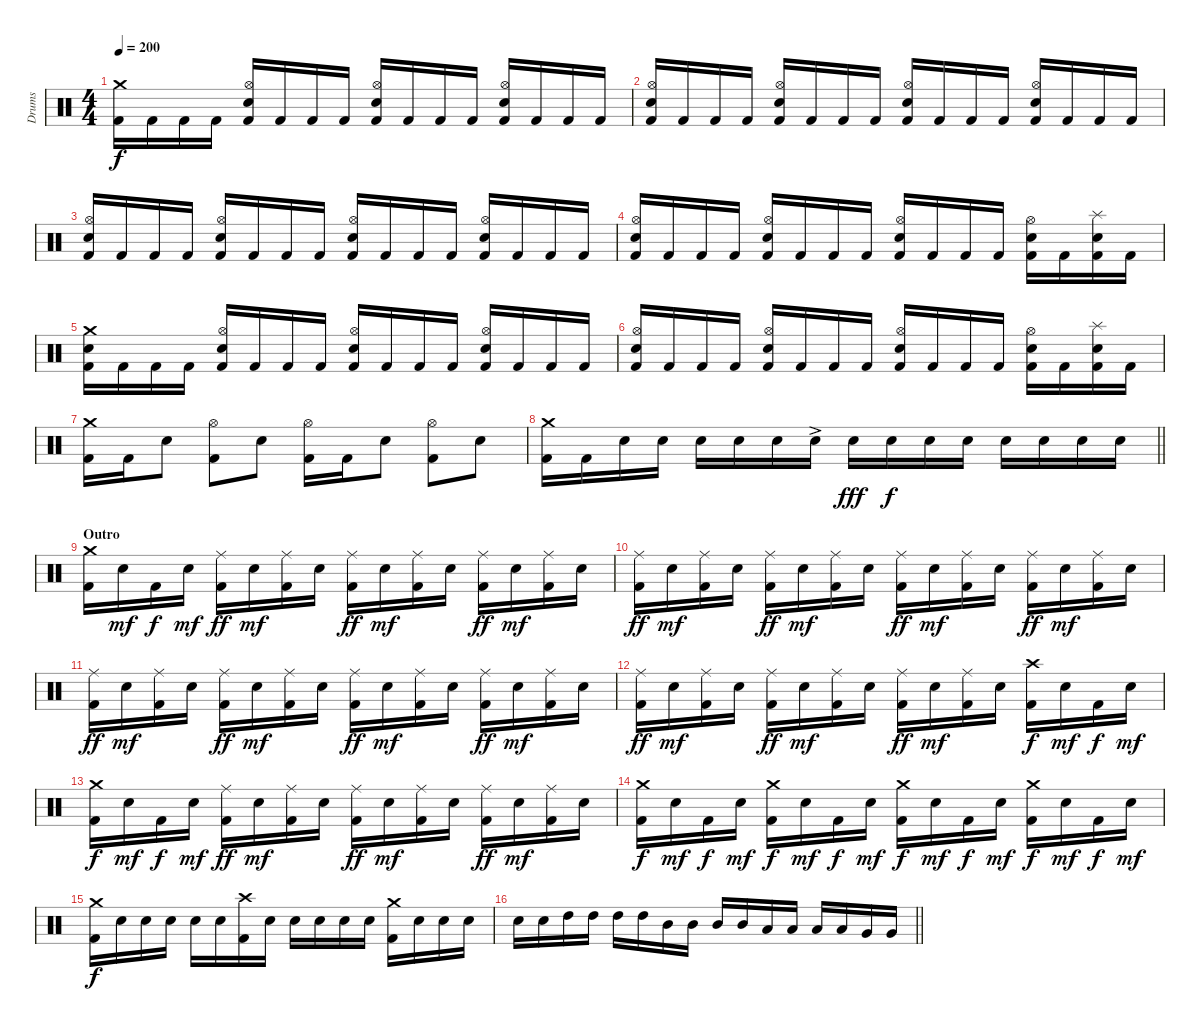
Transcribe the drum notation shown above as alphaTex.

\track ("Drums" "Drums") {instrument percussion}
\staff {score}
\articulation defaults
\ts (4 4)
\tempo 200
\clef neutral
\ks c
("Crash medium (hit)" "Kick (hit) 2").16{dy f} "Kick (hit) 2".16 "Kick (hit) 2".16 "Kick (hit) 2".16 ("Hi-Hat (open)" "Electric Snare (hit)" "Kick (hit) 2").16 "Kick (hit) 2".16 "Kick (hit) 2".16 "Kick (hit) 2".16 ("Hi-Hat (open)" "Electric Snare (hit)" "Kick (hit) 2").16 "Kick (hit) 2".16 "Kick (hit) 2".16 "Kick (hit) 2".16 ("Hi-Hat (open)" "Electric Snare (hit)" "Kick (hit) 2").16 "Kick (hit) 2".16 "Kick (hit) 2".16 "Kick (hit) 2".16 |
("Hi-Hat (open)" "Electric Snare (hit)" "Kick (hit) 2").16 "Kick (hit) 2".16 "Kick (hit) 2".16 "Kick (hit) 2".16 ("Hi-Hat (open)" "Electric Snare (hit)" "Kick (hit) 2").16 "Kick (hit) 2".16 "Kick (hit) 2".16 "Kick (hit) 2".16 ("Hi-Hat (open)" "Electric Snare (hit)" "Kick (hit) 2").16 "Kick (hit) 2".16 "Kick (hit) 2".16 "Kick (hit) 2".16 ("Hi-Hat (open)" "Electric Snare (hit)" "Kick (hit) 2").16 "Kick (hit) 2".16 "Kick (hit) 2".16 "Kick (hit) 2".16 |
("Hi-Hat (open)" "Electric Snare (hit)" "Kick (hit) 2").16 "Kick (hit) 2".16 "Kick (hit) 2".16 "Kick (hit) 2".16 ("Hi-Hat (open)" "Electric Snare (hit)" "Kick (hit) 2").16 "Kick (hit) 2".16 "Kick (hit) 2".16 "Kick (hit) 2".16 ("Hi-Hat (open)" "Electric Snare (hit)" "Kick (hit) 2").16 "Kick (hit) 2".16 "Kick (hit) 2".16 "Kick (hit) 2".16 ("Hi-Hat (open)" "Electric Snare (hit)" "Kick (hit) 2").16 "Kick (hit) 2".16 "Kick (hit) 2".16 "Kick (hit) 2".16 |
("Hi-Hat (open)" "Electric Snare (hit)" "Kick (hit) 2").16 "Kick (hit) 2".16 "Kick (hit) 2".16 "Kick (hit) 2".16 ("Hi-Hat (open)" "Electric Snare (hit)" "Kick (hit) 2").16 "Kick (hit) 2".16 "Kick (hit) 2".16 "Kick (hit) 2".16 ("Hi-Hat (open)" "Electric Snare (hit)" "Kick (hit) 2").16 "Kick (hit) 2".16 "Kick (hit) 2".16 "Kick (hit) 2".16 ("Hi-Hat (open)" "Electric Snare (hit)" "Kick (hit) 2").16 "Kick (hit) 2".16 ("Splash (hit)" "Electric Snare (hit)" "Kick (hit) 2").16 "Kick (hit) 2".16 |
("Crash medium (hit)" "Electric Snare (hit)" "Kick (hit) 2").16 "Kick (hit) 2".16 "Kick (hit) 2".16 "Kick (hit) 2".16 ("Hi-Hat (open)" "Electric Snare (hit)" "Kick (hit) 2").16 "Kick (hit) 2".16 "Kick (hit) 2".16 "Kick (hit) 2".16 ("Hi-Hat (open)" "Electric Snare (hit)" "Kick (hit) 2").16 "Kick (hit) 2".16 "Kick (hit) 2".16 "Kick (hit) 2".16 ("Hi-Hat (open)" "Electric Snare (hit)" "Kick (hit) 2").16 "Kick (hit) 2".16 "Kick (hit) 2".16 "Kick (hit) 2".16 |
("Hi-Hat (open)" "Electric Snare (hit)" "Kick (hit) 2").16 "Kick (hit) 2".16 "Kick (hit) 2".16 "Kick (hit) 2".16 ("Hi-Hat (open)" "Electric Snare (hit)" "Kick (hit) 2").16 "Kick (hit) 2".16 "Kick (hit) 2".16 "Kick (hit) 2".16 ("Hi-Hat (open)" "Electric Snare (hit)" "Kick (hit) 2").16 "Kick (hit) 2".16 "Kick (hit) 2".16 "Kick (hit) 2".16 ("Hi-Hat (open)" "Electric Snare (hit)" "Kick (hit) 2").16 "Kick (hit) 2".16 ("Splash (hit)" "Electric Snare (hit)" "Kick (hit) 2").16 "Kick (hit) 2".16 |
("Crash medium (hit)" "Kick (hit) 2").16 "Kick (hit) 2".16 "Electric Snare (hit)".8 ("Hi-Hat (open)" "Kick (hit) 2").8 "Electric Snare (hit)".8 ("Hi-Hat (open)" "Kick (hit) 2").16 "Kick (hit) 2".16 "Electric Snare (hit)".8 ("Hi-Hat (open)" "Kick (hit) 2").8 "Electric Snare (hit)".8 |
\barLineRight lightlight
("Crash medium (hit)" "Kick (hit) 2").16 "Kick (hit) 2".16 "Electric Snare (hit)".16 "Electric Snare (hit)".16 "Electric Snare (hit)".16 "Electric Snare (hit)".16 "Electric Snare (hit)".16 "Electric Snare (hit)"{ac}.16 "Electric Snare (hit)".16{dy fff} "Electric Snare (hit)".16{dy f} "Electric Snare (hit)".16 "Electric Snare (hit)".16 "Electric Snare (hit)".16 "Electric Snare (hit)".16 "Electric Snare (hit)".16 "Electric Snare (hit)".16 |
\section ("" "Outro")
("Crash medium (hit)" "Kick (hit) 2").16 "Electric Snare (hit)".16{dy mf} "Kick (hit) 2".16{dy f} "Electric Snare (hit)".16{dy mf} ("Ride (middle)" "Kick (hit) 2").16{dy ff} "Electric Snare (hit)".16{dy mf} ("Ride (middle)" "Kick (hit) 2").16 "Electric Snare (hit)".16 ("Ride (middle)" "Kick (hit) 2").16{dy ff} "Electric Snare (hit)".16{dy mf} ("Ride (middle)" "Kick (hit) 2").16 "Electric Snare (hit)".16 ("Ride (middle)" "Kick (hit) 2").16{dy ff} "Electric Snare (hit)".16{dy mf} ("Ride (middle)" "Kick (hit) 2").16 "Electric Snare (hit)".16 |
("Ride (middle)" "Kick (hit) 2").16{dy ff} "Electric Snare (hit)".16{dy mf} ("Ride (middle)" "Kick (hit) 2").16 "Electric Snare (hit)".16 ("Ride (middle)" "Kick (hit) 2").16{dy ff} "Electric Snare (hit)".16{dy mf} ("Ride (middle)" "Kick (hit) 2").16 "Electric Snare (hit)".16 ("Ride (middle)" "Kick (hit) 2").16{dy ff} "Electric Snare (hit)".16{dy mf} ("Ride (middle)" "Kick (hit) 2").16 "Electric Snare (hit)".16 ("Ride (middle)" "Kick (hit) 2").16{dy ff} "Electric Snare (hit)".16{dy mf} ("Ride (middle)" "Kick (hit) 2").16 "Electric Snare (hit)".16 |
("Ride (middle)" "Kick (hit) 2").16{dy ff} "Electric Snare (hit)".16{dy mf} ("Ride (middle)" "Kick (hit) 2").16 "Electric Snare (hit)".16 ("Ride (middle)" "Kick (hit) 2").16{dy ff} "Electric Snare (hit)".16{dy mf} ("Ride (middle)" "Kick (hit) 2").16 "Electric Snare (hit)".16 ("Ride (middle)" "Kick (hit) 2").16{dy ff} "Electric Snare (hit)".16{dy mf} ("Ride (middle)" "Kick (hit) 2").16 "Electric Snare (hit)".16 ("Ride (middle)" "Kick (hit) 2").16{dy ff} "Electric Snare (hit)".16{dy mf} ("Ride (middle)" "Kick (hit) 2").16 "Electric Snare (hit)".16 |
("Ride (middle)" "Kick (hit) 2").16{dy ff} "Electric Snare (hit)".16{dy mf} ("Ride (middle)" "Kick (hit) 2").16 "Electric Snare (hit)".16 ("Ride (middle)" "Kick (hit) 2").16{dy ff} "Electric Snare (hit)".16{dy mf} ("Ride (middle)" "Kick (hit) 2").16 "Electric Snare (hit)".16 ("Ride (middle)" "Kick (hit) 2").16{dy ff} "Electric Snare (hit)".16{dy mf} ("Ride (middle)" "Kick (hit) 2").16 "Electric Snare (hit)".16 ("Crash high (hit)" "Kick (hit) 2").16{dy f} "Electric Snare (hit)".16{dy mf} "Kick (hit) 2".16{dy f} "Electric Snare (hit)".16{dy mf} |
("Crash medium (hit)" "Kick (hit) 2").16{dy f} "Electric Snare (hit)".16{dy mf} "Kick (hit) 2".16{dy f} "Electric Snare (hit)".16{dy mf} ("Ride (middle)" "Kick (hit) 2").16{dy ff} "Electric Snare (hit)".16{dy mf} ("Ride (middle)" "Kick (hit) 2").16 "Electric Snare (hit)".16 ("Ride (middle)" "Kick (hit) 2").16{dy ff} "Electric Snare (hit)".16{dy mf} ("Ride (middle)" "Kick (hit) 2").16 "Electric Snare (hit)".16 ("Ride (middle)" "Kick (hit) 2").16{dy ff} "Electric Snare (hit)".16{dy mf} ("Ride (middle)" "Kick (hit) 2").16 "Electric Snare (hit)".16 |
("Crash medium (hit)" "Kick (hit) 2").16{dy f} "Electric Snare (hit)".16{dy mf} "Kick (hit) 2".16{dy f} "Electric Snare (hit)".16{dy mf} ("Crash medium (hit)" "Kick (hit) 2").16{dy f} "Electric Snare (hit)".16{dy mf} "Kick (hit) 2".16{dy f} "Electric Snare (hit)".16{dy mf} ("Crash medium (hit)" "Kick (hit) 2").16{dy f} "Electric Snare (hit)".16{dy mf} "Kick (hit) 2".16{dy f} "Electric Snare (hit)".16{dy mf} ("Crash medium (hit)" "Kick (hit) 2").16{dy f} "Electric Snare (hit)".16{dy mf} "Kick (hit) 2".16{dy f} "Electric Snare (hit)".16{dy mf} |
("Crash medium (hit)" "Kick (hit) 2").16{dy f} "Electric Snare (hit)".16 "Electric Snare (hit)".16 "Electric Snare (hit)".16 "Electric Snare (hit)".16 "Electric Snare (hit)".16 ("Crash high (hit)" "Kick (hit) 2").16 "Electric Snare (hit)".16 "Electric Snare (hit)".16 "Electric Snare (hit)".16 "Electric Snare (hit)".16 "Electric Snare (hit)".16 ("Crash medium (hit)" "Kick (hit) 2").16 "Electric Snare (hit)".16 "Electric Snare (hit)".16 "Electric Snare (hit)".16 |
\barLineRight lightlight "Electric Snare (hit)".16 "Electric Snare (hit)".16 "High Tom (hit)".16 "High Tom (hit)".16 "High Tom (hit)".16 "High Tom (hit)".16 "Mid Tom (hit)".16 "Mid Tom (hit)".16 "Mid Tom (hit)".16 "Mid Tom (hit)".16 "Low Tom (hit)".16 "Low Tom (hit)".16 "Low Tom (hit)".16 "Low Tom (hit)".16 "Very Low Tom (hit)".16 "Very Low Tom (hit)".16
